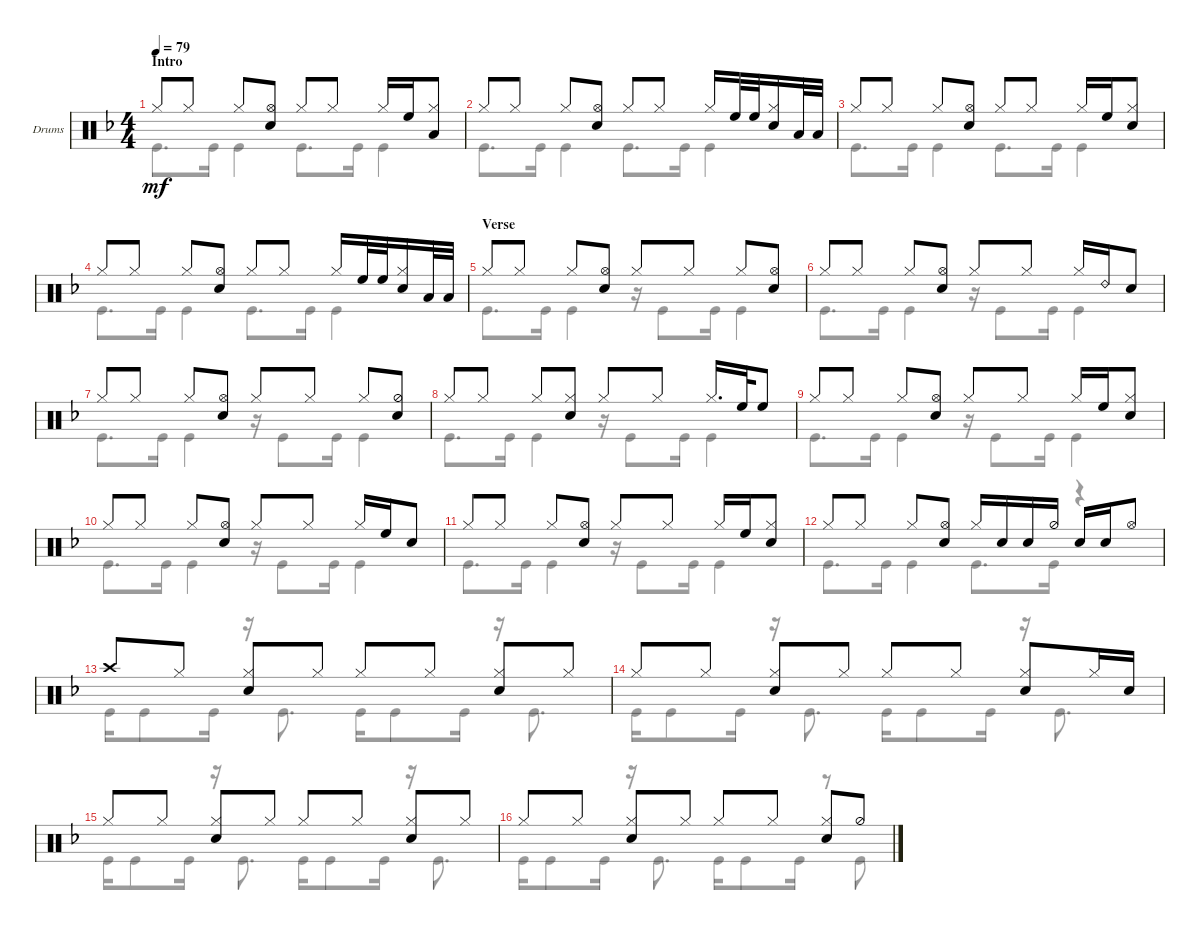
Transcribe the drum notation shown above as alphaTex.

\defaultSystemsLayout 4
\bracketExtendMode groupsimilarinstruments
\firstSystemTrackNameOrientation horizontal
\otherSystemsTrackNameOrientation horizontal
\track ("Drums" "Drums") {instrument percussion}
\staff {score}
\articulation defaults
\voice
\ts (4 4)
\section ("" "Intro")
\tempo 79
\clef neutral
\scale
1.07188
\ks f "Hi-Hat (closed)".8{dy mf} "Hi-Hat (closed)".8 "Hi-Hat (closed)".8
("Hi-Hat (open)" "Snare (hit) 2").8 "Hi-Hat (closed)".8 "Hi-Hat (closed)".8 "Hi-Hat (closed)".16 "High Floor Tom (hit)".16 ("Hi-Hat (closed)" "Low Tom (hit)").8 |
\scale
0.928121 "Hi-Hat (closed)".8 "Hi-Hat (closed)".8 "Hi-Hat (closed)".8 ("Hi-Hat (open)" "Snare (hit) 2").8 "Hi-Hat (closed)".8 "Hi-Hat (closed)".8 "Hi-Hat (closed)".16 "High Floor Tom (hit)".32 "High Floor Tom (hit)".32 ("Hi-Hat (closed)" "Snare (hit) 2").16 "Low Tom (hit)".32 "Low Tom (hit)".32 |
\scale
1.04161 "Hi-Hat (closed)".8 "Hi-Hat (closed)".8 "Hi-Hat (closed)".8 ("Hi-Hat (open)" "Snare (hit) 2").8 "Hi-Hat (closed)".8 "Hi-Hat (closed)".8 "Hi-Hat (closed)".16 "High Floor Tom (hit)".16 ("Hi-Hat (closed)" "Snare (hit) 2").8 |
\scale
0.958386 "Hi-Hat (closed)".8 "Hi-Hat (closed)".8 "Hi-Hat (closed)".8 ("Hi-Hat (open)" "Snare (hit) 2").8 "Hi-Hat (closed)".8 "Hi-Hat (closed)".8 "Hi-Hat (closed)".16 "High Floor Tom (hit)".32 "High Floor Tom (hit)".32 ("Hi-Hat (closed)" "Snare (hit) 2").16 "Low Tom (hit)".32 "Low Tom (hit)".32 |
\section ("" "Verse")
\scale
1.04161 "Hi-Hat (closed)".8 "Hi-Hat (closed)".8 "Hi-Hat (closed)".8 ("Hi-Hat (open)" "Snare (hit) 2").8 "Hi-Hat (closed)".8 "Hi-Hat (closed)".8 "Hi-Hat (closed)".8 ("Hi-Hat (open)" "Snare (hit) 2").8 |
\scale
0.958386 "Hi-Hat (closed)".8 "Hi-Hat (closed)".8 "Hi-Hat (closed)".8 ("Hi-Hat (open)" "Snare (hit) 2").8 "Hi-Hat (closed)".8 "Hi-Hat (closed)".8 "Hi-Hat (closed)".16 "Ride (bell) 2".16 "Snare (hit) 2".8 |
\scale
1.04161 "Hi-Hat (closed)".8 "Hi-Hat (closed)".8 "Hi-Hat (closed)".8 ("Hi-Hat (open)" "Snare (hit) 2").8 "Hi-Hat (closed)".8 "Hi-Hat (closed)".8 "Hi-Hat (closed)".8 ("Snare (hit) 2" "Hi-Hat (half)").8 |
\scale
0.958386 "Hi-Hat (closed)".8 "Hi-Hat (closed)".8 "Hi-Hat (closed)".8 ("Snare (hit) 2" "Hi-Hat (closed)").8 "Hi-Hat (closed)".8 "Hi-Hat (closed)".8 "Hi-Hat (closed)".16{d} "High Floor Tom (hit)".32 "High Floor Tom (hit)".8 |
\scale
1.04161 "Hi-Hat (closed)".8 "Hi-Hat (closed)".8 "Hi-Hat (closed)".8 ("Hi-Hat (open)" "Snare (hit) 2").8 "Hi-Hat (closed)".8 "Hi-Hat (closed)".8 "Hi-Hat (closed)".16 "High Floor Tom (hit)".16 ("Hi-Hat (closed)" "Snare (hit) 2").8 |
\scale
0.958386 "Hi-Hat (closed)".8 "Hi-Hat (closed)".8 "Hi-Hat (closed)".8 ("Hi-Hat (open)" "Snare (hit) 2").8 "Hi-Hat (closed)".8 "Hi-Hat (closed)".8 "Hi-Hat (closed)".16 "High Floor Tom (hit)".16 "Snare (hit) 2".8 |
\scale
1.04161 "Hi-Hat (closed)".8 "Hi-Hat (closed)".8 "Hi-Hat (closed)".8 ("Hi-Hat (open)" "Snare (hit) 2").8 "Hi-Hat (closed)".8 "Hi-Hat (closed)".8 "Hi-Hat (closed)".16 "High Floor Tom (hit)".16 ("Hi-Hat (closed)" "Snare (hit) 2").8 |
\scale
0.958386 "Hi-Hat (closed)".8 "Hi-Hat (closed)".8 "Hi-Hat (closed)".8 ("Hi-Hat (open)" "Snare (hit) 2").8 "Hi-Hat (closed)".16 "Snare (hit) 2".16 "Snare (hit) 2".16 "Hi-Hat (half)".16 "Snare (hit) 2".16 "Snare (hit) 2".16 "Hi-Hat (open)".8 |
\scale
1.04161 "Crash high (hit)".8 "Hi-Hat (closed)".8 ("Hi-Hat (closed)" "Snare (hit) 2").8 "Hi-Hat (closed)".8 "Hi-Hat (closed)".8 "Hi-Hat (closed)".8 ("Hi-Hat (closed)" "Snare (hit) 2").8 "Hi-Hat (closed)".8 |
\scale
0.958386 "Hi-Hat (closed)".8 "Hi-Hat (closed)".8 ("Hi-Hat (closed)" "Snare (hit) 2").8 "Hi-Hat (closed)".8 "Hi-Hat (closed)".8 "Hi-Hat (closed)".8 ("Hi-Hat (closed)" "Snare (hit) 2").8 "Hi-Hat (closed)".16 "Snare (hit) 2".16 |
\scale
1.04161 "Hi-Hat (closed)".8 "Hi-Hat (closed)".8 ("Hi-Hat (closed)" "Snare (hit) 2").8 "Hi-Hat (closed)".8 "Hi-Hat (closed)".8 "Hi-Hat (closed)".8 ("Hi-Hat (closed)" "Snare (hit) 2").8 "Hi-Hat (closed)".8 |
\scale
0.958386 "Hi-Hat (closed)".8 "Hi-Hat (closed)".8 ("Hi-Hat (closed)" "Snare (hit) 2").8 "Hi-Hat (closed)".8 "Hi-Hat (closed)".8 "Hi-Hat (closed)".8 ("Hi-Hat (closed)" "Snare (hit) 2").8 "Hi-Hat (half)".8
\voice
\clef neutral
\ottava regular
\simile none
\scale
1.07188
\ks f "Kick (hit)".8{d dy mf} "Kick (hit)".16 "Kick (hit)".4 "Kick (hit)".8{d} "Kick (hit)".16 "Kick (hit)".4
|
\scale
0.928121 "Kick (hit)".8{d} "Kick (hit)".16 "Kick (hit)".4 "Kick (hit)".8{d} "Kick (hit)".16 "Kick (hit)".4 |
\scale
1.04161 "Kick (hit)".8{d} "Kick (hit)".16 "Kick (hit)".4 "Kick (hit)".8{d} "Kick (hit)".16 "Kick (hit)".4 |
\scale
0.958386 "Kick (hit)".8{d} "Kick (hit)".16 "Kick (hit)".4 "Kick (hit)".8{d} "Kick (hit)".16 "Kick (hit)".4 |
\scale
1.04161 "Kick (hit)".8{d} "Kick (hit)".16 "Kick (hit)".4 r.16 "Kick (hit)".8 "Kick (hit)".16 "Kick (hit)".4 |
\scale
0.958386 "Kick (hit)".8{d} "Kick (hit)".16 "Kick (hit)".4 r.16 "Kick (hit)".8 "Kick (hit)".16 "Kick (hit)".4 |
\scale
1.04161 "Kick (hit)".8{d} "Kick (hit)".16 "Kick (hit)".4 r.16 "Kick (hit)".8 "Kick (hit)".16 "Kick (hit)".4 |
\scale
0.958386 "Kick (hit)".8{d} "Kick (hit)".16 "Kick (hit)".4 r.16 "Kick (hit)".8 "Kick (hit)".16 "Kick (hit)".4 |
\scale
1.04161 "Kick (hit)".8{d} "Kick (hit)".16 "Kick (hit)".4 r.16 "Kick (hit)".8 "Kick (hit)".16 "Kick (hit)".4 |
\scale
0.958386 "Kick (hit)".8{d} "Kick (hit)".16 "Kick (hit)".4 r.16 "Kick (hit)".8 "Kick (hit)".16 "Kick (hit)".4 |
\scale
1.04161 "Kick (hit)".8{d} "Kick (hit)".16 "Kick (hit)".4 r.16 "Kick (hit)".8 "Kick (hit)".16 "Kick (hit)".4 |
\scale
0.958386 "Kick (hit)".8{d} "Kick (hit)".16 "Kick (hit)".4 "Kick (hit)".8{d} "Kick (hit)".16 r.4 |
\scale
1.04161 "Kick (hit)".16 "Kick (hit)".8 "Kick (hit)".16 r.16 "Kick (hit)".8{d} "Kick (hit)".16 "Kick (hit)".8 "Kick (hit)".16 r.16 "Kick (hit)".8{d} |
\scale
0.958386 "Kick (hit)".16 "Kick (hit)".8 "Kick (hit)".16 r.16 "Kick (hit)".8{d} "Kick (hit)".16 "Kick (hit)".8 "Kick (hit)".16 r.16 "Kick (hit)".8{d} |
\scale
1.04161 "Kick (hit)".16 "Kick (hit)".8 "Kick (hit)".16 r.16 "Kick (hit)".8{d} "Kick (hit)".16 "Kick (hit)".8 "Kick (hit)".16 r.16 "Kick (hit)".8{d} |
\scale
0.958386 "Kick (hit)".16 "Kick (hit)".8 "Kick (hit)".16 r.16 "Kick (hit)".8{d} "Kick (hit)".16 "Kick (hit)".8 "Kick (hit)".16 r.8 "Kick (hit)".8
